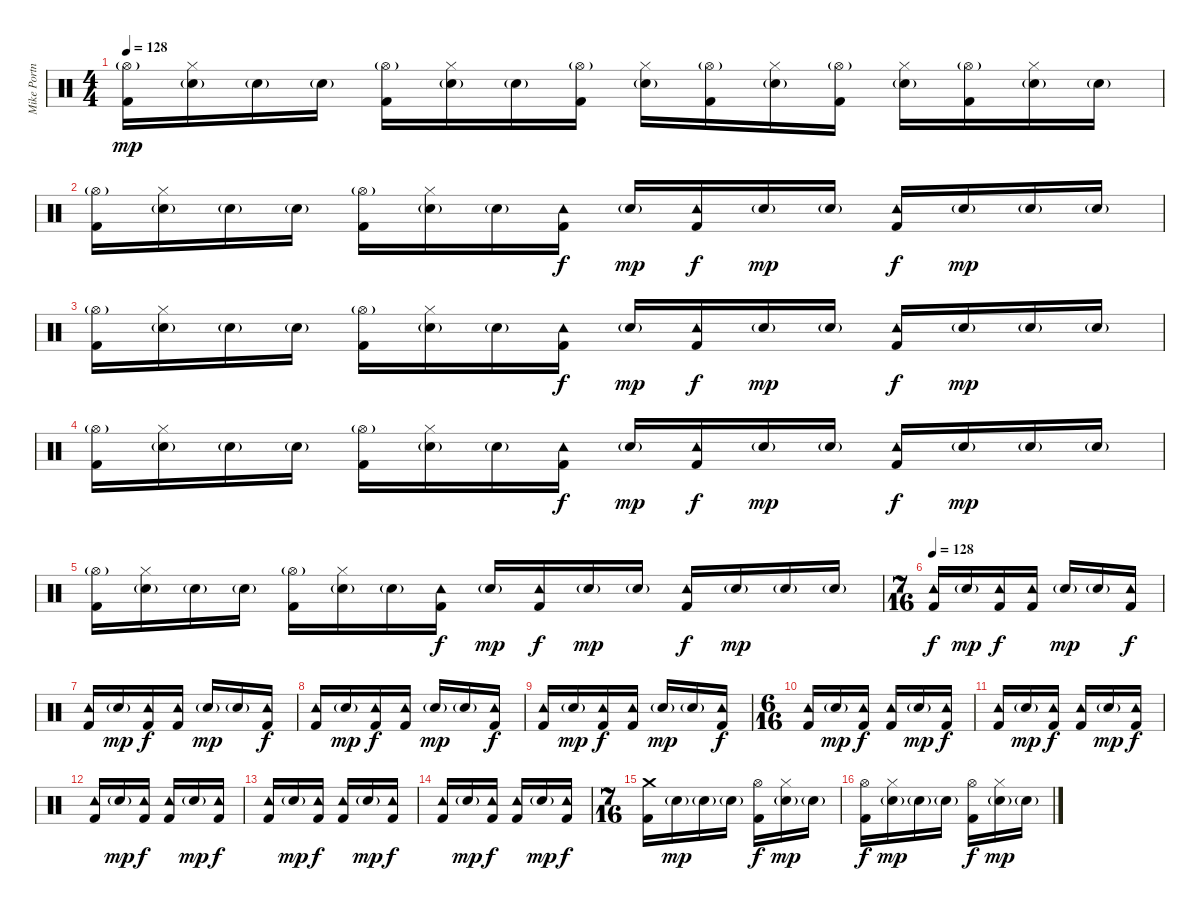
\track ("Mike Portnoy" "Mike Portn") {instrument percussion}
\staff {score}
\articulation defaults
\ts (4 4)
\tempo 128
\clef neutral
\ks c
("Hi-Hat (open)"{g} "Kick (hit) 2").16{dy mp} ("Hi-Hat (closed)" "Snare (hit) 2"{g}).16 "Snare (hit) 2"{g}.16 "Snare (hit) 2"{g}.16 ("Hi-Hat (open)"{g} "Kick (hit) 2").16 ("Hi-Hat (closed)" "Snare (hit) 2"{g}).16 "Snare (hit) 2"{g}.16 ("Hi-Hat (open)"{g} "Kick (hit) 2").16 ("Hi-Hat (closed)" "Snare (hit) 2"{g}).16 ("Hi-Hat (open)"{g} "Kick (hit) 2").16 ("Hi-Hat (closed)" "Snare (hit) 2"{g}).16 ("Hi-Hat (open)"{g} "Kick (hit) 2").16 ("Hi-Hat (closed)" "Snare (hit) 2"{g}).16 ("Hi-Hat (open)"{g} "Kick (hit) 2").16 ("Hi-Hat (closed)" "Snare (hit) 2"{g}).16 "Snare (hit) 2"{g}.16 |
("Hi-Hat (open)"{g} "Kick (hit) 2").16 ("Hi-Hat (closed)" "Snare (hit) 2"{g}).16 "Snare (hit) 2"{g}.16 "Snare (hit) 2"{g}.16 ("Hi-Hat (open)"{g} "Kick (hit) 2").16 ("Hi-Hat (closed)" "Snare (hit) 2"{g}).16 "Snare (hit) 2"{g}.16 ("Tambourine (hit)" "Kick (hit) 2").16{dy f} "Snare (hit) 2"{g}.16{dy mp} ("Tambourine (hit)" "Kick (hit) 2").16{dy f} "Snare (hit) 2"{g}.16{dy mp} "Snare (hit) 2"{g}.16 ("Tambourine (hit)" "Kick (hit) 2").16{dy f} "Snare (hit) 2"{g}.16{dy mp} "Snare (hit) 2"{g}.16 "Snare (hit) 2"{g}.16 |
("Hi-Hat (open)"{g} "Kick (hit) 2").16 ("Hi-Hat (closed)" "Snare (hit) 2"{g}).16 "Snare (hit) 2"{g}.16 "Snare (hit) 2"{g}.16 ("Hi-Hat (open)"{g} "Kick (hit) 2").16 ("Hi-Hat (closed)" "Snare (hit) 2"{g}).16 "Snare (hit) 2"{g}.16 ("Tambourine (hit)" "Kick (hit) 2").16{dy f} "Snare (hit) 2"{g}.16{dy mp} ("Tambourine (hit)" "Kick (hit) 2").16{dy f} "Snare (hit) 2"{g}.16{dy mp} "Snare (hit) 2"{g}.16 ("Tambourine (hit)" "Kick (hit) 2").16{dy f} "Snare (hit) 2"{g}.16{dy mp} "Snare (hit) 2"{g}.16 "Snare (hit) 2"{g}.16 |
("Hi-Hat (open)"{g} "Kick (hit) 2").16 ("Hi-Hat (closed)" "Snare (hit) 2"{g}).16 "Snare (hit) 2"{g}.16 "Snare (hit) 2"{g}.16 ("Hi-Hat (open)"{g} "Kick (hit) 2").16 ("Hi-Hat (closed)" "Snare (hit) 2"{g}).16 "Snare (hit) 2"{g}.16 ("Tambourine (hit)" "Kick (hit) 2").16{dy f} "Snare (hit) 2"{g}.16{dy mp} ("Tambourine (hit)" "Kick (hit) 2").16{dy f} "Snare (hit) 2"{g}.16{dy mp} "Snare (hit) 2"{g}.16 ("Tambourine (hit)" "Kick (hit) 2").16{dy f} "Snare (hit) 2"{g}.16{dy mp} "Snare (hit) 2"{g}.16 "Snare (hit) 2"{g}.16 |
("Hi-Hat (open)"{g} "Kick (hit) 2").16 ("Hi-Hat (closed)" "Snare (hit) 2"{g}).16 "Snare (hit) 2"{g}.16 "Snare (hit) 2"{g}.16 ("Hi-Hat (open)"{g} "Kick (hit) 2").16 ("Hi-Hat (closed)" "Snare (hit) 2"{g}).16 "Snare (hit) 2"{g}.16 ("Tambourine (hit)" "Kick (hit) 2").16{dy f} "Snare (hit) 2"{g}.16{dy mp} ("Tambourine (hit)" "Kick (hit) 2").16{dy f} "Snare (hit) 2"{g}.16{dy mp} "Snare (hit) 2"{g}.16 ("Tambourine (hit)" "Kick (hit) 2").16{dy f} "Snare (hit) 2"{g}.16{dy mp} "Snare (hit) 2"{g}.16 "Snare (hit) 2"{g}.16 |
\ts (7 16)
\tempo 128
("Tambourine (hit)" "Kick (hit) 2").16{dy f} "Snare (hit) 2"{g}.16{dy mp} ("Tambourine (hit)" "Kick (hit) 2").16{dy f} ("Tambourine (hit)" "Kick (hit) 2").16 "Snare (hit) 2"{g}.16{dy mp} "Snare (hit) 2"{g}.16 ("Tambourine (hit)" "Kick (hit) 2").16{dy f} |
("Tambourine (hit)" "Kick (hit) 2").16 "Snare (hit) 2"{g}.16{dy mp} ("Tambourine (hit)" "Kick (hit) 2").16{dy f} ("Tambourine (hit)" "Kick (hit) 2").16 "Snare (hit) 2"{g}.16{dy mp} "Snare (hit) 2"{g}.16 ("Tambourine (hit)" "Kick (hit) 2").16{dy f} |
("Tambourine (hit)" "Kick (hit) 2").16 "Snare (hit) 2"{g}.16{dy mp} ("Tambourine (hit)" "Kick (hit) 2").16{dy f} ("Tambourine (hit)" "Kick (hit) 2").16 "Snare (hit) 2"{g}.16{dy mp} "Snare (hit) 2"{g}.16 ("Tambourine (hit)" "Kick (hit) 2").16{dy f} |
("Tambourine (hit)" "Kick (hit) 2").16 "Snare (hit) 2"{g}.16{dy mp} ("Tambourine (hit)" "Kick (hit) 2").16{dy f} ("Tambourine (hit)" "Kick (hit) 2").16 "Snare (hit) 2"{g}.16{dy mp} "Snare (hit) 2"{g}.16 ("Tambourine (hit)" "Kick (hit) 2").16{dy f} |
\ts (6 16)
("Tambourine (hit)" "Kick (hit) 2").16 "Snare (hit) 2"{g}.16{dy mp} ("Tambourine (hit)" "Kick (hit) 2").16{dy f} ("Tambourine (hit)" "Kick (hit) 2").16 "Snare (hit) 2"{g}.16{dy mp} ("Tambourine (hit)" "Kick (hit) 2").16{dy f} |
("Tambourine (hit)" "Kick (hit) 2").16 "Snare (hit) 2"{g}.16{dy mp} ("Tambourine (hit)" "Kick (hit) 2").16{dy f} ("Tambourine (hit)" "Kick (hit) 2").16 "Snare (hit) 2"{g}.16{dy mp} ("Tambourine (hit)" "Kick (hit) 2").16{dy f} |
("Tambourine (hit)" "Kick (hit) 2").16 "Snare (hit) 2"{g}.16{dy mp} ("Tambourine (hit)" "Kick (hit) 2").16{dy f} ("Tambourine (hit)" "Kick (hit) 2").16 "Snare (hit) 2"{g}.16{dy mp} ("Tambourine (hit)" "Kick (hit) 2").16{dy f} |
("Tambourine (hit)" "Kick (hit) 2").16 "Snare (hit) 2"{g}.16{dy mp} ("Tambourine (hit)" "Kick (hit) 2").16{dy f} ("Tambourine (hit)" "Kick (hit) 2").16 "Snare (hit) 2"{g}.16{dy mp} ("Tambourine (hit)" "Kick (hit) 2").16{dy f} |
("Tambourine (hit)" "Kick (hit) 2").16 "Snare (hit) 2"{g}.16{dy mp} ("Tambourine (hit)" "Kick (hit) 2").16{dy f} ("Tambourine (hit)" "Kick (hit) 2").16 "Snare (hit) 2"{g}.16{dy mp} ("Tambourine (hit)" "Kick (hit) 2").16{dy f} |
\ts (7 16)
("Crash medium (hit)" "Kick (hit) 2").16 "Snare (hit) 2"{g}.16{dy mp} "Snare (hit) 2"{g}.16 "Snare (hit) 2"{g}.16 ("Hi-Hat (open)" "Kick (hit) 2").16{dy f} ("Hi-Hat (closed)" "Snare (hit) 2"{g}).16{dy mp} "Snare (hit) 2"{g}.16 |
("Hi-Hat (open)" "Kick (hit) 2").16{dy f} ("Hi-Hat (closed)" "Snare (hit) 2"{g}).16{dy mp} "Snare (hit) 2"{g}.16 "Snare (hit) 2"{g}.16 ("Hi-Hat (open)" "Kick (hit) 2").16{dy f} ("Hi-Hat (closed)" "Snare (hit) 2"{g}).16{dy mp} "Snare (hit) 2"{g}.16
